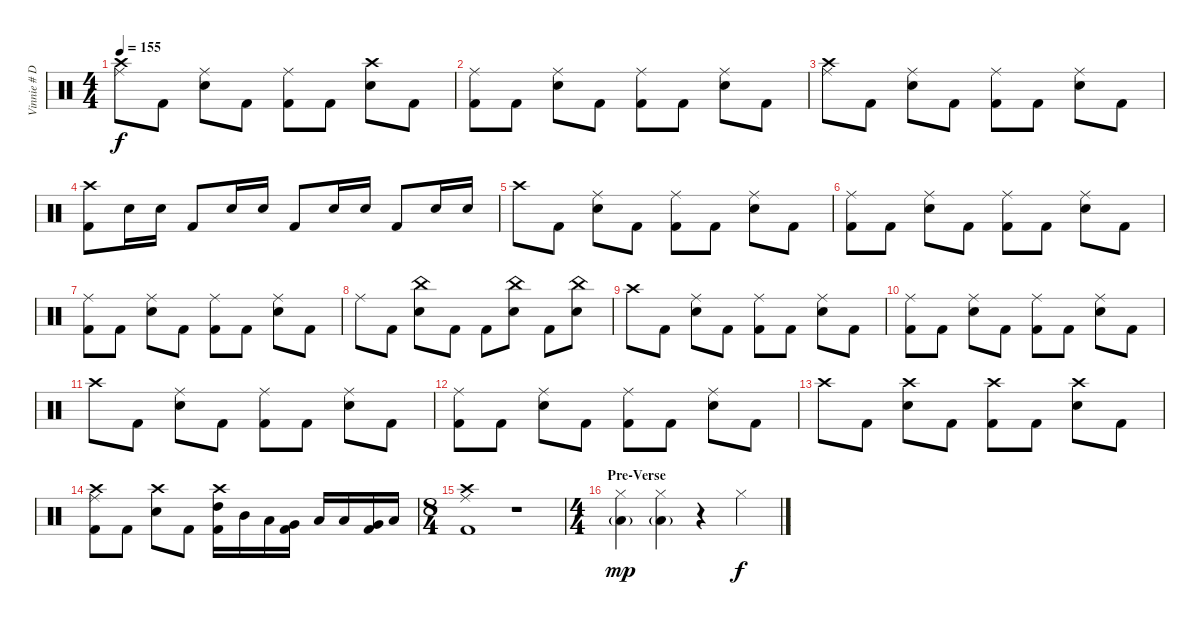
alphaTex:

\track ("Vinnie # Drums" "Vinnie # D") {instrument percussion}
\staff {score}
\articulation defaults
\ts (4 4)
\tempo 155
\clef neutral
\ks c
("Crash high (hit)" "Ride (middle)").8{dy f} "Kick (hit) 2".8 ("Ride (middle)" "Electric Snare (hit)").8 "Kick (hit) 2".8 ("Ride (middle)" "Kick (hit) 2").8 "Kick (hit) 2".8 ("Crash high (hit)" "Electric Snare (hit)").8 "Kick (hit) 2".8 |
("Ride (middle)" "Kick (hit) 2").8 "Kick (hit) 2".8 ("Ride (middle)" "Electric Snare (hit)").8 "Kick (hit) 2".8 ("Ride (middle)" "Kick (hit) 2").8 "Kick (hit) 2".8 ("Ride (middle)" "Electric Snare (hit)").8 "Kick (hit) 2".8 |
("Crash high (hit)" "Ride (middle)").8 "Kick (hit) 2".8 ("Ride (middle)" "Electric Snare (hit)").8 "Kick (hit) 2".8 ("Ride (middle)" "Kick (hit) 2").8 "Kick (hit) 2".8 ("Ride (middle)" "Electric Snare (hit)").8 "Kick (hit) 2".8 |
("Crash high (hit)" "Kick (hit) 2").8 "Electric Snare (hit)".16 "Electric Snare (hit)".16 "Kick (hit) 2".8 "Electric Snare (hit)".16 "Electric Snare (hit)".16 "Kick (hit) 2".8 "Electric Snare (hit)".16 "Electric Snare (hit)".16 "Kick (hit) 2".8 "Electric Snare (hit)".16 "Electric Snare (hit)".16 |
"Crash high (hit)".8 "Kick (hit) 2".8 ("Ride (middle)" "Electric Snare (hit)").8 "Kick (hit) 2".8 ("Ride (middle)" "Kick (hit) 2").8 "Kick (hit) 2".8 ("Ride (middle)" "Electric Snare (hit)").8 "Kick (hit) 2".8 |
("Ride (middle)" "Kick (hit) 2").8 "Kick (hit) 2".8 ("Ride (middle)" "Electric Snare (hit)").8 "Kick (hit) 2".8 ("Ride (middle)" "Kick (hit) 2").8 "Kick (hit) 2".8 ("Ride (middle)" "Electric Snare (hit)").8 "Kick (hit) 2".8 |
("Ride (middle)" "Kick (hit) 2").8 "Kick (hit) 2".8 ("Ride (middle)" "Electric Snare (hit)").8 "Kick (hit) 2".8 ("Ride (middle)" "Kick (hit) 2").8 "Kick (hit) 2".8 ("Ride (middle)" "Electric Snare (hit)").8 "Kick (hit) 2".8 |
"Ride (middle)".8 "Kick (hit) 2".8 ("China (hit)" "Electric Snare (hit)").8 "Kick (hit) 2".8 "Kick (hit) 2".8 ("China (hit)" "Electric Snare (hit)").8 "Kick (hit) 2".8 ("China (hit)" "Electric Snare (hit)").8 |
"Crash high (hit)".8 "Kick (hit) 2".8 ("Ride (middle)" "Electric Snare (hit)").8 "Kick (hit) 2".8 ("Ride (middle)" "Kick (hit) 2").8 "Kick (hit) 2".8 ("Ride (middle)" "Electric Snare (hit)").8 "Kick (hit) 2".8 |
("Ride (middle)" "Kick (hit) 2").8 "Kick (hit) 2".8 ("Ride (middle)" "Electric Snare (hit)").8 "Kick (hit) 2".8 ("Ride (middle)" "Kick (hit) 2").8 "Kick (hit) 2".8 ("Ride (middle)" "Electric Snare (hit)").8 "Kick (hit) 2".8 |
"Crash high (hit)".8 "Kick (hit) 2".8 ("Ride (middle)" "Electric Snare (hit)").8 "Kick (hit) 2".8 ("Ride (middle)" "Kick (hit) 2").8 "Kick (hit) 2".8 ("Ride (middle)" "Electric Snare (hit)").8 "Kick (hit) 2".8 |
("Ride (middle)" "Kick (hit) 2").8 "Kick (hit) 2".8 ("Ride (middle)" "Electric Snare (hit)").8 "Kick (hit) 2".8 ("Ride (middle)" "Kick (hit) 2").8 "Kick (hit) 2".8 ("Ride (middle)" "Electric Snare (hit)").8 "Kick (hit) 2".8 |
"Crash high (hit)".8 "Kick (hit) 2".8 ("Crash high (hit)" "Electric Snare (hit)").8 "Kick (hit) 2".8 ("Crash high (hit)" "Kick (hit) 2").8 "Kick (hit) 2".8 ("Crash high (hit)" "Electric Snare (hit)").8 "Kick (hit) 2".8 |
("Crash high (hit)" "Ride (middle)" "Kick (hit) 2").8 "Kick (hit) 2".8 ("Crash high (hit)" "Electric Snare (hit)").8 "Kick (hit) 2".8 ("Crash high (hit)" "High Tom (hit)" "Kick (hit) 2").16 "Mid Tom (hit)".16 "Low Tom (hit)".16 ("Very Low Tom (hit)" "Kick (hit) 2").16 "Low Floor Tom (hit)".16 "Low Tom (hit)".16 ("Very Low Tom (hit)" "Kick (hit) 2").16 "Low Floor Tom (hit)".16 |
\ts (8 4)
("Crash high (hit)" "Ride (middle)" "Kick (hit) 2").1 r.1 |
\ts (4 4)
\section ("" "Pre-Verse")
("Hi-Hat (closed)" "Low Floor Tom (hit)"{g}).4{dy mp} ("Hi-Hat (closed)" "Low Floor Tom (hit)"{g}).4 r.4 "Hi-Hat (closed)".4{dy f}
